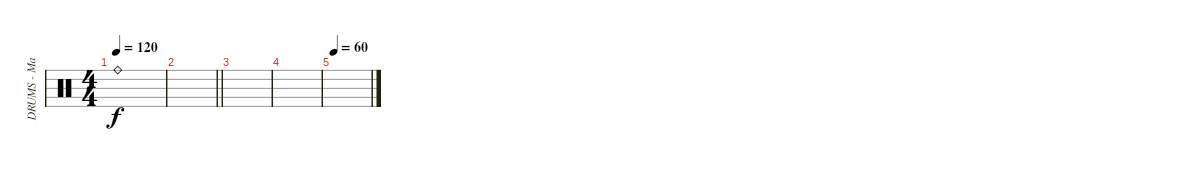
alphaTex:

\track ("DRUMS - Mario Duplantier" "DRUMS - Ma") {instrument percussion}
\staff {score}
\articulation defaults
\ts (4 4)
\tempo 120
\clef neutral
\ks c "Ride (bell)".1{dy f}
|
\barLineRight lightlight
|
|
|
\tempo 60
